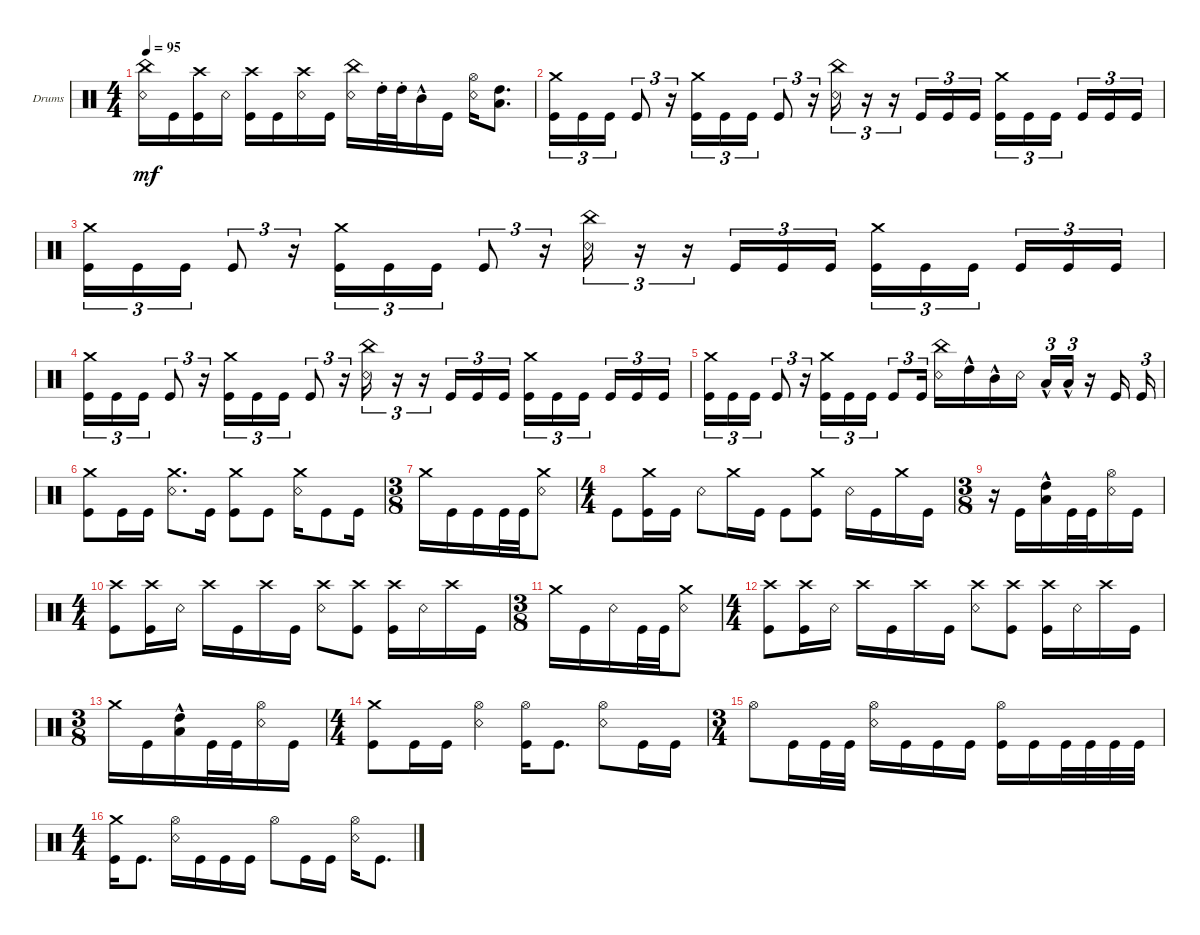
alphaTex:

\defaultSystemsLayout 4
\bracketExtendMode groupsimilarinstruments
\firstSystemTrackNameOrientation horizontal
\otherSystemsTrackNameOrientation horizontal
\track ("Drumkit" "Drums") {instrument percussion}
\staff {score}
\articulation defaults
\ts (4 4)
\tempo 95
\clef neutral
\ks c
("Snare (rim shot)" "China (hit)").16{dy mf} "Kick (hit)".16 ("Kick (hit)" "Crash high (hit)").16 "Snare (rim shot)".16 ("Kick (hit)" "Crash high (hit)").16 "Kick (hit)".16 ("Snare (rim shot)" "Crash high (hit)").16 "Kick (hit)".16 ("Snare (rim shot)" "China (hit)").16 "High Tom (hit)"{st}.32 "High Tom (hit)"{st}.32 "Mid Tom (hit)"{hac}.16 "Kick (hit)".16 ("Snare (rim shot)" "Hi-Hat (open)").16 ("High Tom (hit)" "Low Tom (hit)").8{d} |
("Kick (hit)" "Crash medium (hit)").16{tu (3 2)} "Kick (hit)".16{tu (3 2)} "Kick (hit)".16{tu (3 2)} "Kick (hit)".8{tu (3 2)} r.16{tu (3 2)} ("Kick (hit)" "Crash medium (hit)").16{tu (3 2)} "Kick (hit)".16{tu (3 2)} "Kick (hit)".16{tu (3 2)} "Kick (hit)".8{tu (3 2)} r.16{tu (3 2)} ("Snare (rim shot)" "China (hit)").16{tu (3 2)} r.16{tu (3 2)} r.16{tu (3 2)} "Kick (hit)".16{tu (3 2)} "Kick (hit)".16{tu (3 2)} "Kick (hit)".16{tu (3 2)} ("Kick (hit)" "Crash medium (hit)").16{tu (3 2)} "Kick (hit)".16{tu (3 2)} "Kick (hit)".16{tu (3 2)} "Kick (hit)".16{tu (3 2)} "Kick (hit)".16{tu (3 2)} "Kick (hit)".16{tu (3 2)} |
("Kick (hit)" "Crash medium (hit)").16{tu (3 2)} "Kick (hit)".16{tu (3 2)} "Kick (hit)".16{tu (3 2)} "Kick (hit)".8{tu (3 2)} r.16{tu (3 2)} ("Kick (hit)" "Crash medium (hit)").16{tu (3 2)} "Kick (hit)".16{tu (3 2)} "Kick (hit)".16{tu (3 2)} "Kick (hit)".8{tu (3 2)} r.16{tu (3 2)} ("Snare (rim shot)" "China (hit)").16{tu (3 2)} r.16{tu (3 2)} r.16{tu (3 2)} "Kick (hit)".16{tu (3 2)} "Kick (hit)".16{tu (3 2)} "Kick (hit)".16{tu (3 2)} ("Kick (hit)" "Crash medium (hit)").16{tu (3 2)} "Kick (hit)".16{tu (3 2)} "Kick (hit)".16{tu (3 2)} "Kick (hit)".16{tu (3 2)} "Kick (hit)".16{tu (3 2)} "Kick (hit)".16{tu (3 2)} |
("Kick (hit)" "Crash medium (hit)").16{tu (3 2)} "Kick (hit)".16{tu (3 2)} "Kick (hit)".16{tu (3 2)} "Kick (hit)".8{tu (3 2)} r.16{tu (3 2)} ("Kick (hit)" "Crash medium (hit)").16{tu (3 2)} "Kick (hit)".16{tu (3 2)} "Kick (hit)".16{tu (3 2)} "Kick (hit)".8{tu (3 2)} r.16{tu (3 2)} ("Snare (rim shot)" "China (hit)").16{tu (3 2)} r.16{tu (3 2)} r.16{tu (3 2)} "Kick (hit)".16{tu (3 2)} "Kick (hit)".16{tu (3 2)} "Kick (hit)".16{tu (3 2)} ("Kick (hit)" "Crash medium (hit)").16{tu (3 2)} "Kick (hit)".16{tu (3 2)} "Kick (hit)".16{tu (3 2)} "Kick (hit)".16{tu (3 2)} "Kick (hit)".16{tu (3 2)} "Kick (hit)".16{tu (3 2)} |
("Kick (hit)" "Crash medium (hit)").16{tu (3 2)} "Kick (hit)".16{tu (3 2)} "Kick (hit)".16{tu (3 2)} "Kick (hit)".8{tu (3 2)} r.16{tu (3 2)} ("Kick (hit)" "Crash medium (hit)").16{tu (3 2)} "Kick (hit)".16{tu (3 2)} "Kick (hit)".16{tu (3 2)} "Kick (hit)".8{tu (3 2)} "Kick (hit)".16{tu (3 2)} ("Snare (rim shot)" "China (hit)").16 "High Tom (hit)"{hac}.16 "Mid Tom (hit)"{hac}.16 "Snare (rim shot)".16 "Low Tom (hit)"{hac}.16{tu (3 2)} "Low Tom (hit)"{hac}.16{tu (3 2)} r.16 "Kick (hit)".16 "Kick (hit)".16{tu (3 2)} |
("Kick (hit)" "Crash medium (hit)").8 "Kick (hit)".16 "Kick (hit)".16 ("Snare (rim shot)" "Crash medium (hit)").8{d} "Kick (hit)".16 ("Kick (hit)" "Crash medium (hit)").8 "Kick (hit)".8 ("Snare (rim shot)" "Crash medium (hit)").16 "Kick (hit)".8 "Kick (hit)".16 |
\ts (3 8)
"Crash medium (hit)".16 "Kick (hit)".16 "Kick (hit)".16 "Kick (hit)".32 "Kick (hit)".32 ("Snare (rim shot)" "Crash medium (hit)").8 |
\ts (4 4)
"Kick (hit)".8 ("Kick (hit)" "Crash medium (hit)").16 "Kick (hit)".16 "Snare (rim shot)".8 "Crash medium (hit)".16 "Kick (hit)".16 "Kick (hit)".8 ("Kick (hit)" "Crash medium (hit)").8 "Snare (rim shot)".16 "Kick (hit)".16 "Crash medium (hit)".16 "Kick (hit)".16 |
\ts (3 8)
r.16 "Kick (hit)".16 ("Low Tom (hit)"{hac} "High Tom (hit)"{hac}).16 "Kick (hit)".32 "Kick (hit)".32 ("Snare (rim shot)" "Hi-Hat (open)").16 "Kick (hit)".16 |
\ts (4 4)
("Kick (hit)" "Crash high (hit)").8 ("Kick (hit)" "Crash high (hit)").16 "Snare (rim shot)".16 "Crash high (hit)".16 "Kick (hit)".16 "Crash high (hit)".16 "Kick (hit)".16 ("Crash high (hit)" "Snare (rim shot)").8 ("Kick (hit)" "Crash high (hit)").8 ("Crash high (hit)" "Kick (hit)").16 "Snare (rim shot)".16 "Crash high (hit)".16 "Kick (hit)".16 |
\ts (3 8)
"Crash medium (hit)".16 "Kick (hit)".16 "Snare (rim shot)".16 "Kick (hit)".32 "Kick (hit)".32 ("Snare (rim shot)" "Crash medium (hit)").8 |
\ts (4 4)
("Kick (hit)" "Crash high (hit)").8 ("Kick (hit)" "Crash high (hit)").16 "Snare (rim shot)".16 "Crash high (hit)".16 "Kick (hit)".16 "Crash high (hit)".16 "Kick (hit)".16 ("Crash high (hit)" "Snare (rim shot)").8 ("Kick (hit)" "Crash high (hit)").8 ("Crash high (hit)" "Kick (hit)").16 "Snare (rim shot)".16 "Crash high (hit)".16 "Kick (hit)".16 |
\ts (3 8)
"Crash medium (hit)".16 "Kick (hit)".16 ("Low Tom (hit)"{hac} "High Tom (hit)"{hac}).16 "Kick (hit)".32 "Kick (hit)".32 ("Snare (rim shot)" "Hi-Hat (open)").16 "Kick (hit)".16 |
\ts (4 4)
("Kick (hit)" "Crash medium (hit)").8 "Kick (hit)".16 "Kick (hit)".16 ("Hi-Hat (open)" "Snare (rim shot)").4 ("Kick (hit)" "Hi-Hat (open)").16 "Kick (hit)".8{d} ("Hi-Hat (open)" "Snare (rim shot)").8 "Kick (hit)".16 "Kick (hit)".16 |
\ts (3 4)
"Hi-Hat (open)".8 "Kick (hit)".16 "Kick (hit)".32 "Kick (hit)".32 ("Hi-Hat (open)" "Snare (rim shot)").16 "Kick (hit)".16 "Kick (hit)".16 "Kick (hit)".16 ("Kick (hit)" "Hi-Hat (open)").16 "Kick (hit)".16 "Kick (hit)".32 "Kick (hit)".32 "Kick (hit)".32 "Kick (hit)".32 |
\ts (4 4)
("Kick (hit)" "Crash medium (hit)").16 "Kick (hit)".8{d} ("Hi-Hat (open)" "Snare (rim shot)").16 "Kick (hit)".16 "Kick (hit)".16 "Kick (hit)".16 "Hi-Hat (open)".8 "Kick (hit)".16 "Kick (hit)".16 ("Hi-Hat (open)" "Snare (rim shot)").16 "Kick (hit)".8{d}
